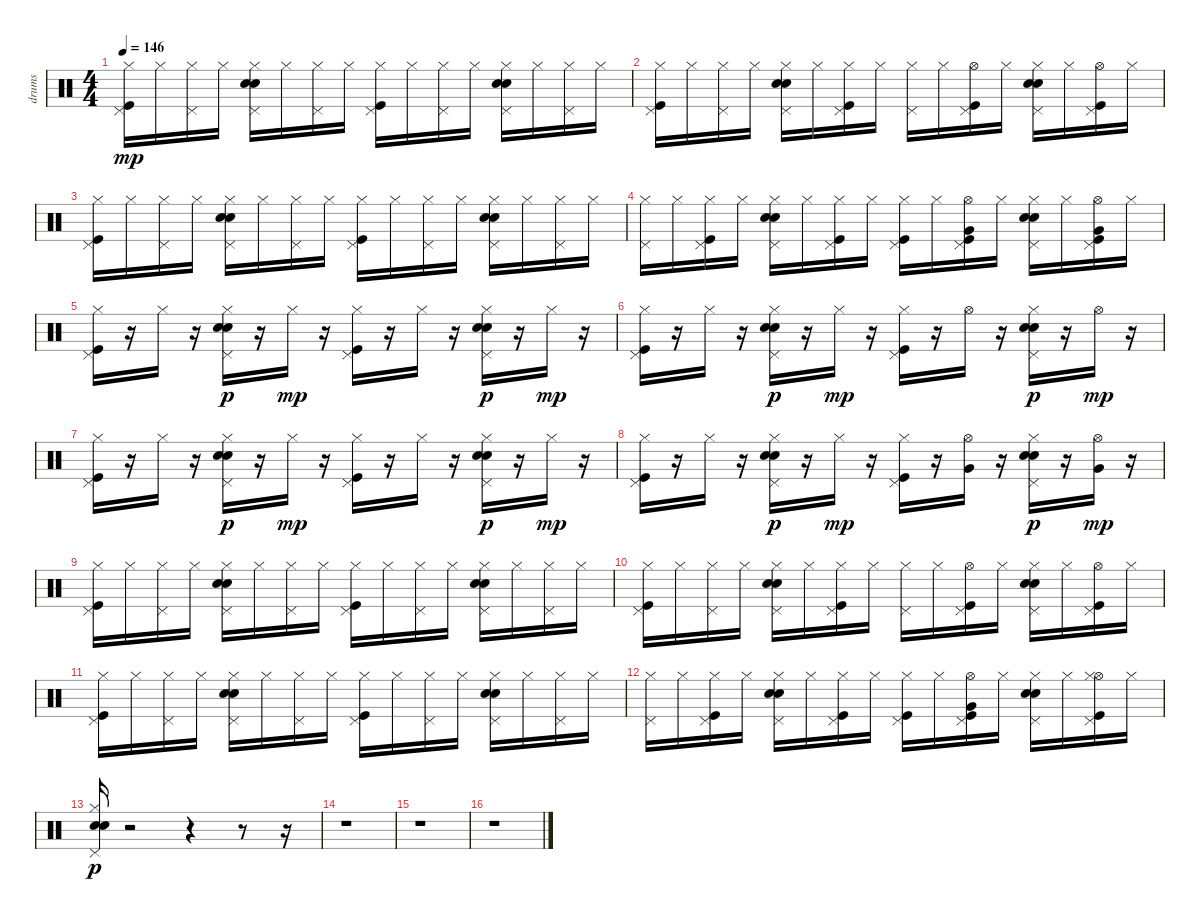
\track ("drums" "drums") {instrument percussion}
\staff {score}
\articulation defaults
\ts (4 4)
\tempo 146
\clef neutral
\ks c
("Kick (hit)" "Pedal Hi-Hat (hit)" "Hi-Hat (closed)").16{dy mp} "Hi-Hat (closed)".16 ("Hi-Hat (closed)" "Pedal Hi-Hat (hit)").16 "Hi-Hat (closed)".16 ("Snare (hit) 2" "Hi-Hat (closed)" "Electric Snare (hit)" "Pedal Hi-Hat (hit)").16 "Hi-Hat (closed)".16 ("Hi-Hat (closed)" "Pedal Hi-Hat (hit)").16 "Hi-Hat (closed)".16 ("Kick (hit)" "Hi-Hat (closed)" "Pedal Hi-Hat (hit)").16 "Hi-Hat (closed)".16 ("Hi-Hat (closed)" "Pedal Hi-Hat (hit)").16 "Hi-Hat (closed)".16 ("Snare (hit) 2" "Hi-Hat (closed)" "Electric Snare (hit)" "Pedal Hi-Hat (hit)").16 "Hi-Hat (closed)".16 ("Hi-Hat (closed)" "Pedal Hi-Hat (hit)").16 "Hi-Hat (closed)".16 |
("Kick (hit)" "Hi-Hat (closed)" "Pedal Hi-Hat (hit)").16 "Hi-Hat (closed)".16 ("Hi-Hat (closed)" "Pedal Hi-Hat (hit)").16 "Hi-Hat (closed)".16 ("Snare (hit) 2" "Hi-Hat (closed)" "Electric Snare (hit)" "Pedal Hi-Hat (hit)").16 "Hi-Hat (closed)".16 ("Hi-Hat (closed)" "Pedal Hi-Hat (hit)" "Kick (hit)").16 "Hi-Hat (closed)".16 ("Hi-Hat (closed)" "Pedal Hi-Hat (hit)").16 "Hi-Hat (closed)".16 ("Hi-Hat (open)" "Pedal Hi-Hat (hit)" "Kick (hit)").16 "Hi-Hat (closed)".16 ("Snare (hit) 2" "Hi-Hat (closed)" "Electric Snare (hit)" "Pedal Hi-Hat (hit)").16 "Hi-Hat (closed)".16 ("Hi-Hat (open)" "Pedal Hi-Hat (hit)" "Kick (hit)").16 "Hi-Hat (closed)".16 |
("Kick (hit)" "Hi-Hat (closed)" "Pedal Hi-Hat (hit)").16 "Hi-Hat (closed)".16 ("Hi-Hat (closed)" "Pedal Hi-Hat (hit)").16 "Hi-Hat (closed)".16 ("Snare (hit) 2" "Hi-Hat (closed)" "Electric Snare (hit)" "Pedal Hi-Hat (hit)").16 "Hi-Hat (closed)".16 ("Hi-Hat (closed)" "Pedal Hi-Hat (hit)").16 "Hi-Hat (closed)".16 ("Kick (hit)" "Hi-Hat (closed)" "Pedal Hi-Hat (hit)").16 "Hi-Hat (closed)".16 ("Hi-Hat (closed)" "Pedal Hi-Hat (hit)").16 "Hi-Hat (closed)".16 ("Snare (hit) 2" "Hi-Hat (closed)" "Electric Snare (hit)" "Pedal Hi-Hat (hit)").16 "Hi-Hat (closed)".16 ("Hi-Hat (closed)" "Pedal Hi-Hat (hit)").16 "Hi-Hat (closed)".16 |
("Hi-Hat (closed)" "Pedal Hi-Hat (hit)").16 "Hi-Hat (closed)".16 ("Hi-Hat (closed)" "Pedal Hi-Hat (hit)" "Kick (hit)").16 "Hi-Hat (closed)".16 ("Snare (hit) 2" "Hi-Hat (closed)" "Electric Snare (hit)" "Pedal Hi-Hat (hit)").16 "Hi-Hat (closed)".16 ("Hi-Hat (closed)" "Pedal Hi-Hat (hit)" "Kick (hit)").16 "Hi-Hat (closed)".16 ("Kick (hit)" "Hi-Hat (closed)" "Pedal Hi-Hat (hit)").16 "Hi-Hat (closed)".16 ("Hi-Hat (open)" "Very Low Tom (hit)" "Pedal Hi-Hat (hit)" "Kick (hit)").16 "Hi-Hat (closed)".16 ("Snare (hit) 2" "Hi-Hat (closed)" "Electric Snare (hit)" "Pedal Hi-Hat (hit)").16 "Hi-Hat (closed)".16 ("Hi-Hat (open)" "Very Low Tom (hit)" "Pedal Hi-Hat (hit)" "Kick (hit)").16 "Hi-Hat (closed)".16 |
("Kick (hit)" "Hi-Hat (closed)" "Pedal Hi-Hat (hit)").16 r.16 "Hi-Hat (closed)".16 r.16 ("Pedal Hi-Hat (hit)" "Snare (hit) 2" "Hi-Hat (closed)" "Electric Snare (hit)").16{dy p} r.16 "Hi-Hat (closed)".16{dy mp} r.16 ("Kick (hit)" "Pedal Hi-Hat (hit)" "Hi-Hat (closed)").16 r.16 "Hi-Hat (closed)".16 r.16 ("Pedal Hi-Hat (hit)" "Snare (hit) 2" "Hi-Hat (closed)" "Electric Snare (hit)").16{dy p} r.16 "Hi-Hat (closed)".16{dy mp} r.16 |
("Kick (hit)" "Pedal Hi-Hat (hit)" "Hi-Hat (closed)").16 r.16 "Hi-Hat (closed)".16 r.16 ("Pedal Hi-Hat (hit)" "Snare (hit) 2" "Hi-Hat (closed)" "Electric Snare (hit)").16{dy p} r.16 "Hi-Hat (closed)".16{dy mp} r.16 ("Kick (hit)" "Pedal Hi-Hat (hit)" "Hi-Hat (closed)").16 r.16 "Hi-Hat (open)".16 r.16 ("Pedal Hi-Hat (hit)" "Snare (hit) 2" "Hi-Hat (closed)" "Electric Snare (hit)").16{dy p} r.16 "Hi-Hat (open)".16{dy mp} r.16 |
("Kick (hit)" "Pedal Hi-Hat (hit)" "Hi-Hat (closed)").16 r.16 "Hi-Hat (closed)".16 r.16 ("Pedal Hi-Hat (hit)" "Snare (hit) 2" "Hi-Hat (closed)" "Electric Snare (hit)").16{dy p} r.16 "Hi-Hat (closed)".16{dy mp} r.16 ("Kick (hit)" "Pedal Hi-Hat (hit)" "Hi-Hat (closed)").16 r.16 "Hi-Hat (closed)".16 r.16 ("Pedal Hi-Hat (hit)" "Snare (hit) 2" "Hi-Hat (closed)" "Electric Snare (hit)").16{dy p} r.16 "Hi-Hat (closed)".16{dy mp} r.16 |
("Kick (hit)" "Pedal Hi-Hat (hit)" "Hi-Hat (closed)").16 r.16 "Hi-Hat (closed)".16 r.16 ("Pedal Hi-Hat (hit)" "Snare (hit) 2" "Hi-Hat (closed)" "Electric Snare (hit)").16{dy p} r.16 "Hi-Hat (closed)".16{dy mp} r.16 ("Kick (hit)" "Pedal Hi-Hat (hit)" "Hi-Hat (closed)").16 r.16 ("Hi-Hat (open)" "Very Low Tom (hit)").16 r.16 ("Pedal Hi-Hat (hit)" "Snare (hit) 2" "Hi-Hat (closed)" "Electric Snare (hit)").16{dy p} r.16 ("Hi-Hat (open)" "Very Low Tom (hit)").16{dy mp} r.16 |
("Kick (hit)" "Pedal Hi-Hat (hit)" "Hi-Hat (closed)").16 "Hi-Hat (closed)".16 ("Hi-Hat (closed)" "Pedal Hi-Hat (hit)").16 "Hi-Hat (closed)".16 ("Snare (hit) 2" "Hi-Hat (closed)" "Electric Snare (hit)" "Pedal Hi-Hat (hit)").16 "Hi-Hat (closed)".16 ("Hi-Hat (closed)" "Pedal Hi-Hat (hit)").16 "Hi-Hat (closed)".16 ("Kick (hit)" "Hi-Hat (closed)" "Pedal Hi-Hat (hit)").16 "Hi-Hat (closed)".16 ("Hi-Hat (closed)" "Pedal Hi-Hat (hit)").16 "Hi-Hat (closed)".16 ("Snare (hit) 2" "Hi-Hat (closed)" "Electric Snare (hit)" "Pedal Hi-Hat (hit)").16 "Hi-Hat (closed)".16 ("Hi-Hat (closed)" "Pedal Hi-Hat (hit)").16 "Hi-Hat (closed)".16 |
("Kick (hit)" "Hi-Hat (closed)" "Pedal Hi-Hat (hit)").16 "Hi-Hat (closed)".16 ("Hi-Hat (closed)" "Pedal Hi-Hat (hit)").16 "Hi-Hat (closed)".16 ("Snare (hit) 2" "Hi-Hat (closed)" "Electric Snare (hit)" "Pedal Hi-Hat (hit)").16 "Hi-Hat (closed)".16 ("Hi-Hat (closed)" "Pedal Hi-Hat (hit)" "Kick (hit)").16 "Hi-Hat (closed)".16 ("Hi-Hat (closed)" "Pedal Hi-Hat (hit)").16 "Hi-Hat (closed)".16 ("Hi-Hat (open)" "Pedal Hi-Hat (hit)" "Kick (hit)").16 "Hi-Hat (closed)".16 ("Snare (hit) 2" "Hi-Hat (closed)" "Electric Snare (hit)" "Pedal Hi-Hat (hit)").16 "Hi-Hat (closed)".16 ("Hi-Hat (open)" "Pedal Hi-Hat (hit)" "Kick (hit)").16 "Hi-Hat (closed)".16 |
("Kick (hit)" "Hi-Hat (closed)" "Pedal Hi-Hat (hit)").16 "Hi-Hat (closed)".16 ("Hi-Hat (closed)" "Pedal Hi-Hat (hit)").16 "Hi-Hat (closed)".16 ("Snare (hit) 2" "Hi-Hat (closed)" "Electric Snare (hit)" "Pedal Hi-Hat (hit)").16 "Hi-Hat (closed)".16 ("Hi-Hat (closed)" "Pedal Hi-Hat (hit)").16 "Hi-Hat (closed)".16 ("Kick (hit)" "Hi-Hat (closed)" "Pedal Hi-Hat (hit)").16 "Hi-Hat (closed)".16 ("Hi-Hat (closed)" "Pedal Hi-Hat (hit)").16 "Hi-Hat (closed)".16 ("Snare (hit) 2" "Hi-Hat (closed)" "Electric Snare (hit)" "Pedal Hi-Hat (hit)").16 "Hi-Hat (closed)".16 ("Hi-Hat (closed)" "Pedal Hi-Hat (hit)").16 "Hi-Hat (closed)".16 |
("Hi-Hat (closed)" "Pedal Hi-Hat (hit)").16 "Hi-Hat (closed)".16 ("Hi-Hat (closed)" "Pedal Hi-Hat (hit)" "Kick (hit)").16 "Hi-Hat (closed)".16 ("Snare (hit) 2" "Hi-Hat (closed)" "Electric Snare (hit)" "Pedal Hi-Hat (hit)").16 "Hi-Hat (closed)".16 ("Hi-Hat (closed)" "Pedal Hi-Hat (hit)" "Kick (hit)").16 "Hi-Hat (closed)".16 ("Kick (hit)" "Hi-Hat (closed)" "Pedal Hi-Hat (hit)").16 "Hi-Hat (closed)".16 ("Hi-Hat (open)" "Very Low Tom (hit)" "Pedal Hi-Hat (hit)" "Kick (hit)").16 "Hi-Hat (closed)".16 ("Snare (hit) 2" "Hi-Hat (closed)" "Electric Snare (hit)" "Pedal Hi-Hat (hit)").16 "Hi-Hat (closed)".16 ("Hi-Hat (open)" "Hi-Hat (closed)" "Pedal Hi-Hat (hit)" "Kick (hit)").16 "Hi-Hat (closed)".16 |
("Pedal Hi-Hat (hit)" "Hi-Hat (closed)" "Snare (hit) 2" "Electric Snare (hit)").16{dy p} r.2 r.4 r.8 r.16 |
r.1 |
r.1 |
r.1
